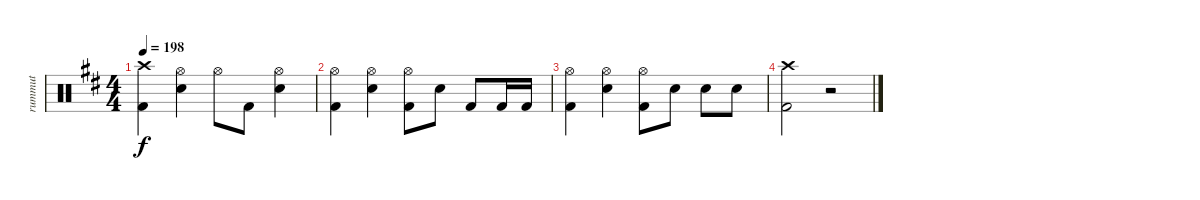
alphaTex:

\track ("rummut" "rummut") {instrument percussion}
\staff {score}
\articulation defaults
\ts (4 4)
\tempo 198
\clef neutral
\ks d
("Crash high (hit)" "Kick (hit) 2").4{dy f} ("Hi-Hat (open)" "Electric Snare (hit)").4 "Hi-Hat (open)".8 "Kick (hit) 2".8 ("Hi-Hat (open)" "Electric Snare (hit)").4 |
("Hi-Hat (open)" "Kick (hit) 2").4 ("Hi-Hat (open)" "Electric Snare (hit)").4 ("Hi-Hat (open)" "Kick (hit) 2").8 "Electric Snare (hit)".8 "Kick (hit) 2".8 "Kick (hit) 2".16 "Kick (hit) 2".16 |
("Hi-Hat (open)" "Kick (hit) 2").4 ("Hi-Hat (open)" "Electric Snare (hit)").4 ("Hi-Hat (open)" "Kick (hit) 2").8 "Electric Snare (hit)".8 "Electric Snare (hit)".8 "Electric Snare (hit)".8 |
("Crash high (hit)" "Kick (hit) 2").2 r.2
